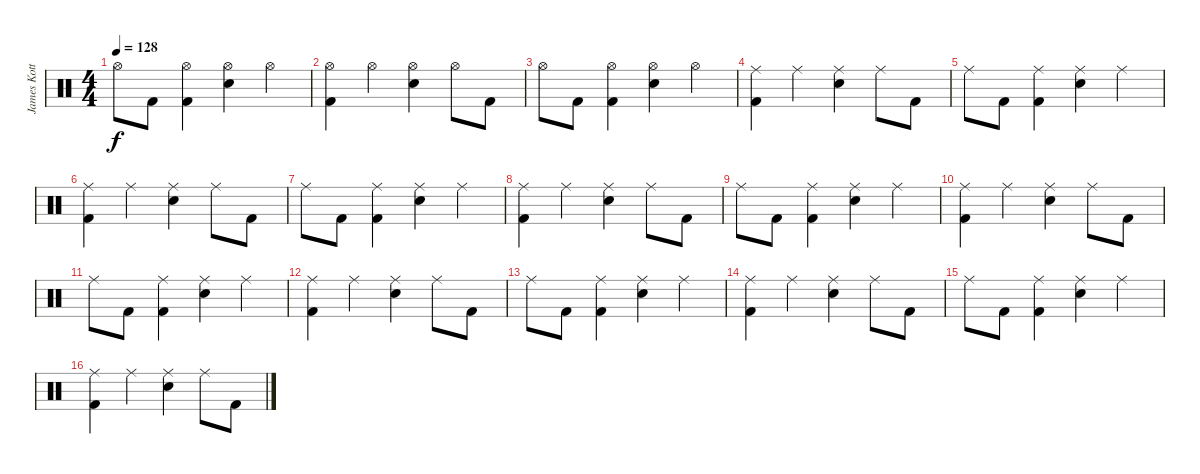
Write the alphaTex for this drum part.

\track ("James Kottak" "James Kott") {instrument percussion}
\staff {score}
\articulation defaults
\ts (4 4)
\tempo 128
\clef neutral
\ks c "Hi-Hat (open)".8{dy f} "Kick (hit) 2".8
("Hi-Hat (open)" "Kick (hit) 2").4 ("Hi-Hat (open)" "Electric Snare (hit)").4 "Hi-Hat (open)".4 |
("Hi-Hat (open)" "Kick (hit) 2").4 "Hi-Hat (open)".4 ("Hi-Hat (open)" "Electric Snare (hit)").4 "Hi-Hat (open)".8 "Kick (hit) 2".8 |
"Hi-Hat (open)".8 "Kick (hit) 2".8 ("Hi-Hat (open)" "Kick (hit) 2").4 ("Hi-Hat (open)" "Electric Snare (hit)").4 "Hi-Hat (open)".4 |
("Ride (middle)" "Kick (hit) 2").4 "Ride (middle)".4 ("Ride (middle)" "Electric Snare (hit)").4 "Ride (middle)".8 "Kick (hit) 2".8 |
"Ride (middle)".8 "Kick (hit) 2".8 ("Ride (middle)" "Kick (hit) 2").4 ("Ride (middle)" "Electric Snare (hit)").4 "Ride (middle)".4 |
("Ride (middle)" "Kick (hit) 2").4 "Ride (middle)".4 ("Ride (middle)" "Electric Snare (hit)").4 "Ride (middle)".8 "Kick (hit) 2".8 |
"Ride (middle)".8 "Kick (hit) 2".8 ("Ride (middle)" "Kick (hit) 2").4 ("Ride (middle)" "Electric Snare (hit)").4 "Ride (middle)".4 |
("Ride (middle)" "Kick (hit) 2").4 "Ride (middle)".4 ("Ride (middle)" "Electric Snare (hit)").4 "Ride (middle)".8 "Kick (hit) 2".8 |
"Ride (middle)".8 "Kick (hit) 2".8 ("Ride (middle)" "Kick (hit) 2").4 ("Ride (middle)" "Electric Snare (hit)").4 "Ride (middle)".4 |
("Ride (middle)" "Kick (hit) 2").4 "Ride (middle)".4 ("Ride (middle)" "Electric Snare (hit)").4 "Ride (middle)".8 "Kick (hit) 2".8 |
"Ride (middle)".8 "Kick (hit) 2".8 ("Ride (middle)" "Kick (hit) 2").4 ("Ride (middle)" "Electric Snare (hit)").4 "Ride (middle)".4 |
("Ride (middle)" "Kick (hit) 2").4 "Ride (middle)".4 ("Ride (middle)" "Electric Snare (hit)").4 "Ride (middle)".8 "Kick (hit) 2".8 |
"Ride (middle)".8 "Kick (hit) 2".8 ("Ride (middle)" "Kick (hit) 2").4 ("Ride (middle)" "Electric Snare (hit)").4 "Ride (middle)".4 |
("Ride (middle)" "Kick (hit) 2").4 "Ride (middle)".4 ("Ride (middle)" "Electric Snare (hit)").4 "Ride (middle)".8 "Kick (hit) 2".8 |
"Ride (middle)".8 "Kick (hit) 2".8 ("Ride (middle)" "Kick (hit) 2").4 ("Ride (middle)" "Electric Snare (hit)").4 "Ride (middle)".4 |
("Ride (middle)" "Kick (hit) 2").4 "Ride (middle)".4 ("Ride (middle)" "Electric Snare (hit)").4 "Ride (middle)".8 "Kick (hit) 2".8
